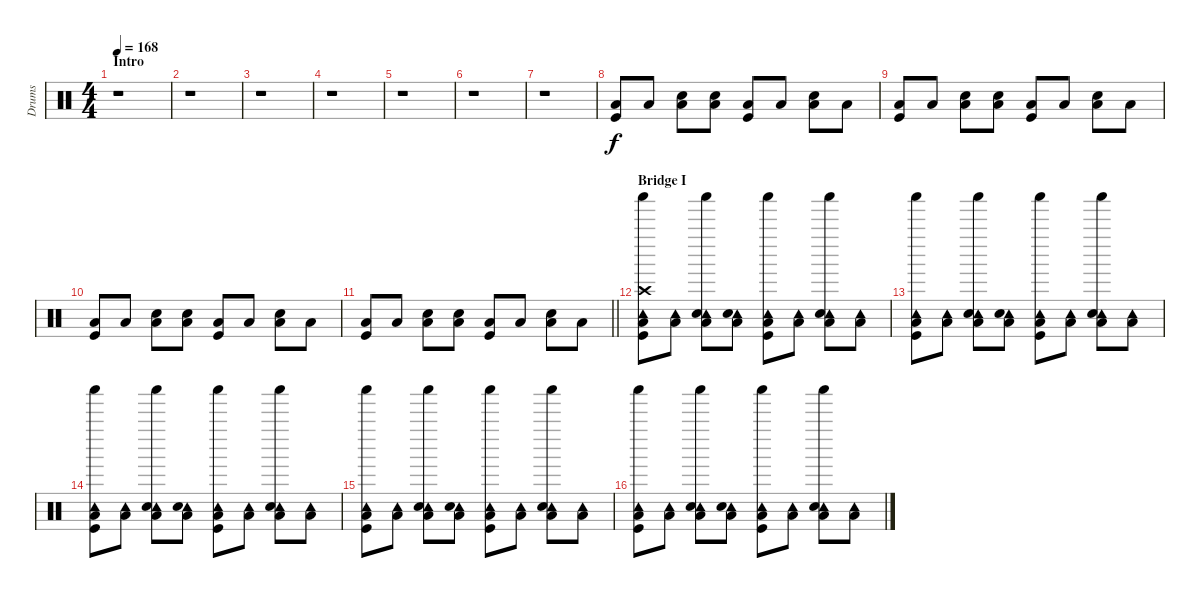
\track ("Drums" "Drums") {instrument percussion}
\staff {score}
\articulation defaults
\ts (4 4)
\section ("" "Intro")
\tempo 168
\clef neutral
\ks c
r.1{dy f} |
r.1 |
r.1 |
r.1 |
r.1 |
r.1 |
r.1 |
("Low Floor Tom (hit)" "Kick (hit)").8 "Low Floor Tom (hit)".8 ("Snare (hit) 2" "Low Floor Tom (hit)").8 ("Snare (hit) 2" "Low Floor Tom (hit)").8 ("Low Floor Tom (hit)" "Kick (hit)").8 "Low Floor Tom (hit)".8 ("Snare (hit) 2" "Low Floor Tom (hit)").8 "Low Floor Tom (hit)".8 |
("Low Floor Tom (hit)" "Kick (hit)").8 "Low Floor Tom (hit)".8 ("Snare (hit) 2" "Low Floor Tom (hit)").8 ("Snare (hit) 2" "Low Floor Tom (hit)").8 ("Low Floor Tom (hit)" "Kick (hit)").8 "Low Floor Tom (hit)".8 ("Snare (hit) 2" "Low Floor Tom (hit)").8 "Low Floor Tom (hit)".8 |
("Low Floor Tom (hit)" "Kick (hit)").8 "Low Floor Tom (hit)".8 ("Snare (hit) 2" "Low Floor Tom (hit)").8 ("Snare (hit) 2" "Low Floor Tom (hit)").8 ("Low Floor Tom (hit)" "Kick (hit)").8 "Low Floor Tom (hit)".8 ("Snare (hit) 2" "Low Floor Tom (hit)").8 "Low Floor Tom (hit)".8 |
\barLineRight lightlight
("Low Floor Tom (hit)" "Kick (hit)").8 "Low Floor Tom (hit)".8 ("Snare (hit) 2" "Low Floor Tom (hit)").8 ("Snare (hit) 2" "Low Floor Tom (hit)").8 ("Low Floor Tom (hit)" "Kick (hit)").8 "Low Floor Tom (hit)".8 ("Snare (hit) 2" "Low Floor Tom (hit)").8 "Low Floor Tom (hit)".8 |
\section ("" "Bridge I")
("Tambourine (hit)" "Shaker (hit)" "Crash high (hit)" "Low Floor Tom (hit)" "Kick (hit)").8 ("Tambourine (hit)" "Low Floor Tom (hit)").8 ("Tambourine (hit)" "Shaker (hit)" "Snare (hit) 2" "Low Floor Tom (hit)").8 ("Tambourine (hit)" "Snare (hit) 2" "Low Floor Tom (hit)").8 ("Tambourine (hit)" "Shaker (hit)" "Low Floor Tom (hit)" "Kick (hit)").8 ("Tambourine (hit)" "Low Floor Tom (hit)").8 ("Tambourine (hit)" "Shaker (hit)" "Snare (hit) 2" "Low Floor Tom (hit)").8 ("Tambourine (hit)" "Low Floor Tom (hit)").8 |
("Tambourine (hit)" "Shaker (hit)" "Low Floor Tom (hit)" "Kick (hit)").8 ("Tambourine (hit)" "Low Floor Tom (hit)").8 ("Tambourine (hit)" "Shaker (hit)" "Snare (hit) 2" "Low Floor Tom (hit)").8 ("Tambourine (hit)" "Snare (hit) 2" "Low Floor Tom (hit)").8 ("Tambourine (hit)" "Shaker (hit)" "Low Floor Tom (hit)" "Kick (hit)").8 ("Tambourine (hit)" "Low Floor Tom (hit)").8 ("Tambourine (hit)" "Shaker (hit)" "Snare (hit) 2" "Low Floor Tom (hit)").8 ("Tambourine (hit)" "Low Floor Tom (hit)").8 |
("Tambourine (hit)" "Shaker (hit)" "Low Floor Tom (hit)" "Kick (hit)").8 ("Tambourine (hit)" "Low Floor Tom (hit)").8 ("Tambourine (hit)" "Shaker (hit)" "Snare (hit) 2" "Low Floor Tom (hit)").8 ("Tambourine (hit)" "Snare (hit) 2" "Low Floor Tom (hit)").8 ("Tambourine (hit)" "Shaker (hit)" "Low Floor Tom (hit)" "Kick (hit)").8 ("Tambourine (hit)" "Low Floor Tom (hit)").8 ("Tambourine (hit)" "Shaker (hit)" "Snare (hit) 2" "Low Floor Tom (hit)").8 ("Tambourine (hit)" "Low Floor Tom (hit)").8 |
("Tambourine (hit)" "Shaker (hit)" "Low Floor Tom (hit)" "Kick (hit)").8 ("Tambourine (hit)" "Low Floor Tom (hit)").8 ("Tambourine (hit)" "Shaker (hit)" "Snare (hit) 2" "Low Floor Tom (hit)").8 ("Tambourine (hit)" "Snare (hit) 2" "Low Floor Tom (hit)").8 ("Tambourine (hit)" "Shaker (hit)" "Low Floor Tom (hit)" "Kick (hit)").8 ("Tambourine (hit)" "Low Floor Tom (hit)").8 ("Tambourine (hit)" "Shaker (hit)" "Snare (hit) 2" "Low Floor Tom (hit)").8 ("Tambourine (hit)" "Low Floor Tom (hit)").8 |
("Tambourine (hit)" "Shaker (hit)" "Low Floor Tom (hit)" "Kick (hit)").8 ("Tambourine (hit)" "Low Floor Tom (hit)").8 ("Tambourine (hit)" "Shaker (hit)" "Snare (hit) 2" "Low Floor Tom (hit)").8 ("Tambourine (hit)" "Snare (hit) 2" "Low Floor Tom (hit)").8 ("Tambourine (hit)" "Shaker (hit)" "Low Floor Tom (hit)" "Kick (hit)").8 ("Tambourine (hit)" "Low Floor Tom (hit)").8 ("Tambourine (hit)" "Shaker (hit)" "Snare (hit) 2" "Low Floor Tom (hit)").8 ("Tambourine (hit)" "Low Floor Tom (hit)").8
